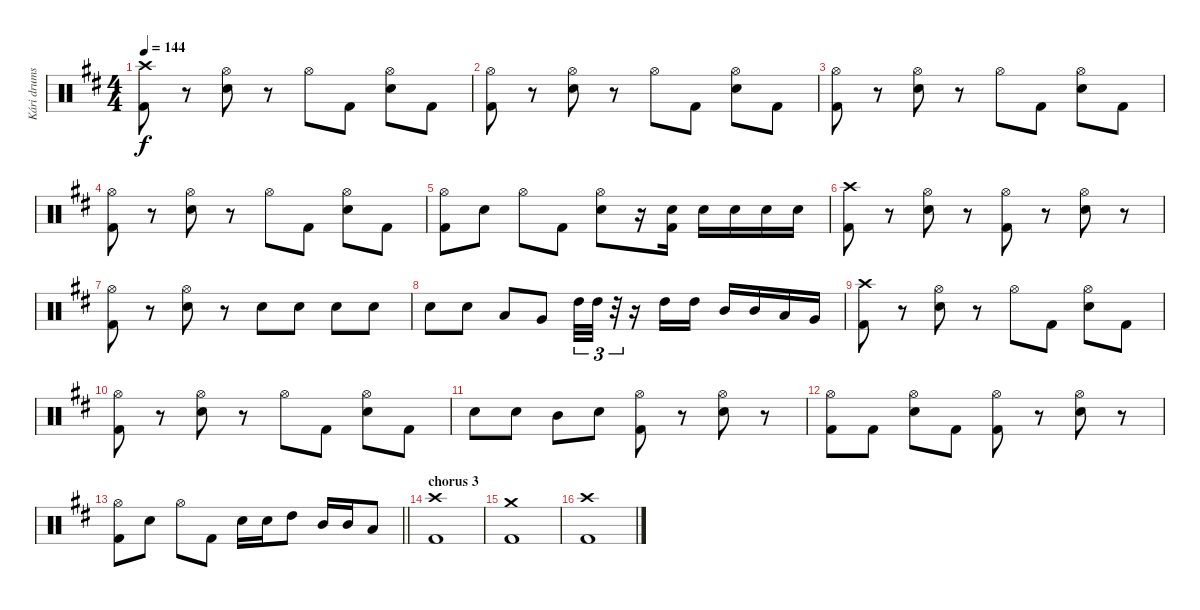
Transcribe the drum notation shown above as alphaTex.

\track ("Kári drums" "Kári drums") {instrument percussion}
\staff {score}
\articulation defaults
\ts (4 4)
\tempo 144
\clef neutral
\ks bminor
("Crash high (hit)" "Kick (hit) 2").8{dy f} r.8 ("Hi-Hat (open)" "Snare (hit) 2").8 r.8 "Hi-Hat (open)".8 "Kick (hit) 2".8 ("Hi-Hat (open)" "Snare (hit) 2").8 "Kick (hit) 2".8 |
("Hi-Hat (open)" "Kick (hit) 2").8 r.8 ("Hi-Hat (open)" "Snare (hit) 2").8 r.8 "Hi-Hat (open)".8 "Kick (hit) 2".8 ("Hi-Hat (open)" "Snare (hit) 2").8 "Kick (hit) 2".8 |
("Hi-Hat (open)" "Kick (hit) 2").8 r.8 ("Hi-Hat (open)" "Snare (hit) 2").8 r.8 "Hi-Hat (open)".8 "Kick (hit) 2".8 ("Hi-Hat (open)" "Snare (hit) 2").8 "Kick (hit) 2".8 |
("Hi-Hat (open)" "Kick (hit) 2").8 r.8 ("Hi-Hat (open)" "Snare (hit) 2").8 r.8 "Hi-Hat (open)".8 "Kick (hit) 2".8 ("Hi-Hat (open)" "Snare (hit) 2").8 "Kick (hit) 2".8 |
("Hi-Hat (open)" "Kick (hit) 2").8 "Snare (hit) 2".8 "Hi-Hat (open)".8 "Kick (hit) 2".8 ("Hi-Hat (open)" "Snare (hit) 2").8 r.16 ("Kick (hit) 2" "Snare (hit) 2").16 "Snare (hit) 2".16 "Snare (hit) 2".16 "Snare (hit) 2".16 "Snare (hit) 2".16 |
("Crash high (hit)" "Kick (hit) 2").8 r.8 ("Hi-Hat (open)" "Snare (hit) 2").8 r.8 ("Hi-Hat (open)" "Kick (hit) 2").8 r.8 ("Hi-Hat (open)" "Snare (hit) 2").8 r.8 |
("Hi-Hat (open)" "Kick (hit) 2").8 r.8 ("Hi-Hat (open)" "Snare (hit) 2").8 r.8 "Snare (hit) 2".8 "Snare (hit) 2".8 "Snare (hit) 2".8 "Snare (hit) 2".8 |
"Snare (hit) 2".8 "Snare (hit) 2".8 "Low Tom (hit)".8 "Very Low Tom (hit)".8 "High Tom (hit)".32{tu (3 2)} "High Tom (hit)".32{tu (3 2)} r.32{tu (3 2)} r.16 "High Tom (hit)".16 "High Tom (hit)".16 "Mid Tom (hit)".16 "Mid Tom (hit)".16 "Low Tom (hit)".16 "Very Low Tom (hit)".16 |
("Crash high (hit)" "Kick (hit) 2").8 r.8 ("Hi-Hat (open)" "Snare (hit) 2").8 r.8 "Hi-Hat (open)".8 "Kick (hit) 2".8 ("Hi-Hat (open)" "Snare (hit) 2").8 "Kick (hit) 2".8 |
("Hi-Hat (open)" "Kick (hit) 2").8 r.8 ("Hi-Hat (open)" "Snare (hit) 2").8 r.8 "Hi-Hat (open)".8 "Kick (hit) 2".8 ("Hi-Hat (open)" "Snare (hit) 2").8 "Kick (hit) 2".8 |
"Snare (hit) 2".8 "Snare (hit) 2".8 "Mid Tom (hit)".8 "Snare (hit) 2".8 ("Hi-Hat (open)" "Kick (hit) 2").8 r.8 ("Hi-Hat (open)" "Snare (hit) 2").8 r.8 |
("Hi-Hat (open)" "Kick (hit) 2").8 "Kick (hit) 2".8 ("Hi-Hat (open)" "Snare (hit) 2").8 "Kick (hit) 2".8 ("Hi-Hat (open)" "Kick (hit) 2").8 r.8 ("Hi-Hat (open)" "Snare (hit) 2").8 r.8 |
\barLineRight lightlight
("Hi-Hat (open)" "Kick (hit) 2").8 "Snare (hit) 2".8 "Hi-Hat (open)".8 "Kick (hit) 2".8 "Snare (hit) 2".16 "Snare (hit) 2".16 "High Tom (hit)".8 "Mid Tom (hit)".16 "Mid Tom (hit)".16 "Low Tom (hit)".8 |
\section ("" "chorus 3")
("Crash high (hit)" "Kick (hit) 2").1 |
("Crash medium (hit)" "Kick (hit) 2").1 |
("Crash high (hit)" "Kick (hit) 2").1
